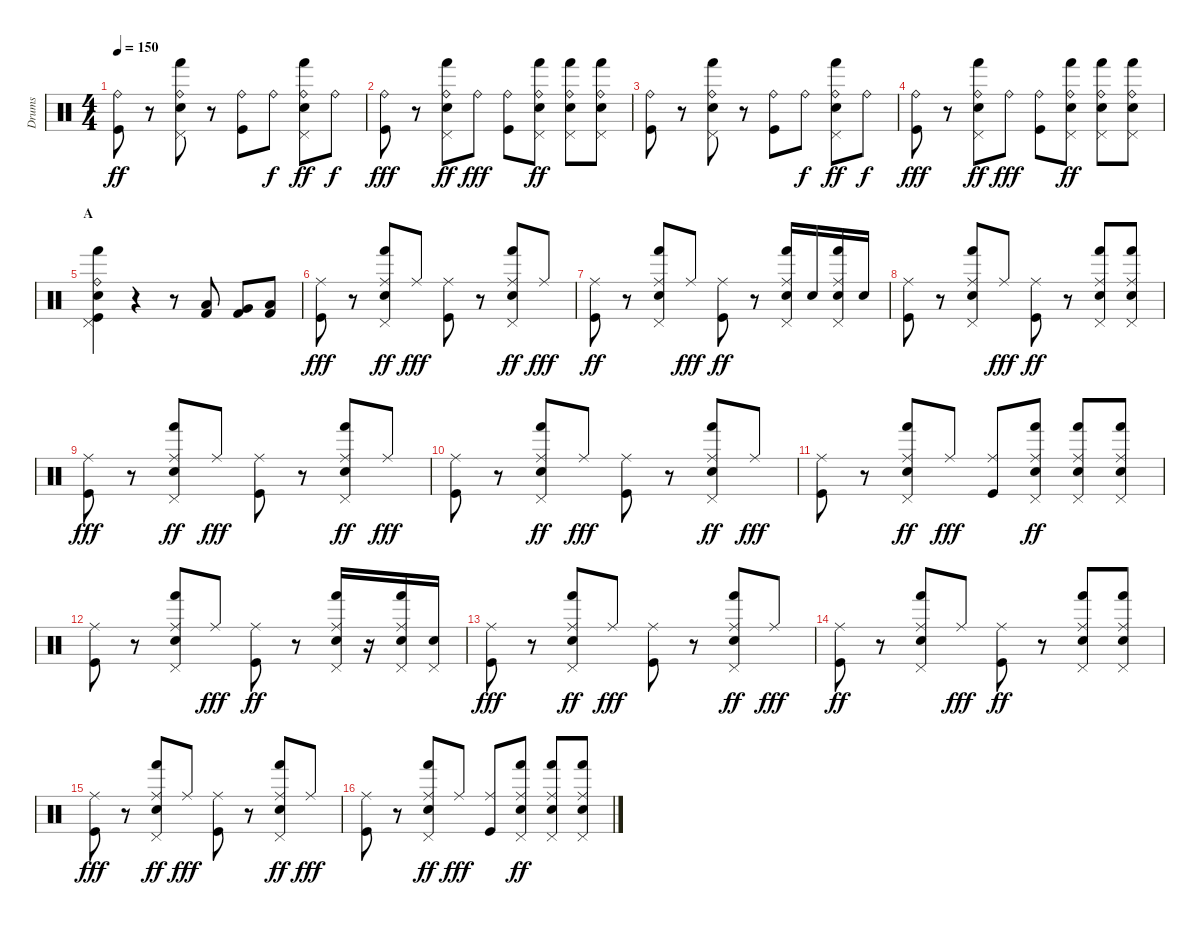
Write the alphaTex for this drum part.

\track ("Drums" "Drums") {instrument percussion}
\staff {score}
\articulation defaults
\ts (4 4)
\tempo 150
\clef neutral
\ks c
("Ride (bell)" "Kick (hit)").8{dy ff} r.8 ("Ride (bell)" "Pedal Hi-Hat (hit)" "Hand (hit)" "Electric Snare (hit)").8 r.8 ("Ride (bell)" "Kick (hit)").8 "Ride (bell)".8{dy f} ("Ride (bell)" "Pedal Hi-Hat (hit)" "Hand (hit)" "Electric Snare (hit)").8{dy ff} "Ride (bell)".8{dy f} |
("Ride (bell)" "Kick (hit)").8{dy fff} r.8 ("Ride (bell)" "Pedal Hi-Hat (hit)" "Hand (hit)" "Electric Snare (hit)").8{dy ff} "Ride (bell)".8{dy fff} ("Ride (bell)" "Kick (hit)").8 ("Ride (bell)" "Pedal Hi-Hat (hit)" "Hand (hit)" "Electric Snare (hit)").8{dy ff} ("Ride (bell)" "Pedal Hi-Hat (hit)" "Hand (hit)" "Electric Snare (hit)").8 ("Ride (bell)" "Pedal Hi-Hat (hit)" "Hand (hit)" "Electric Snare (hit)").8 |
("Ride (bell)" "Kick (hit)").8 r.8 ("Ride (bell)" "Pedal Hi-Hat (hit)" "Hand (hit)" "Electric Snare (hit)").8 r.8 ("Ride (bell)" "Kick (hit)").8 "Ride (bell)".8{dy f} ("Ride (bell)" "Pedal Hi-Hat (hit)" "Hand (hit)" "Electric Snare (hit)").8{dy ff} "Ride (bell)".8{dy f} |
("Ride (bell)" "Kick (hit)").8{dy fff} r.8 ("Ride (bell)" "Pedal Hi-Hat (hit)" "Hand (hit)" "Electric Snare (hit)").8{dy ff} "Ride (bell)".8{dy fff} ("Ride (bell)" "Kick (hit)").8 ("Ride (bell)" "Pedal Hi-Hat (hit)" "Hand (hit)" "Electric Snare (hit)").8{dy ff} ("Ride (bell)" "Pedal Hi-Hat (hit)" "Hand (hit)" "Electric Snare (hit)").8 ("Ride (bell)" "Pedal Hi-Hat (hit)" "Hand (hit)" "Electric Snare (hit)").8 |
\section ("" "A")
("Ride (bell)" "Pedal Hi-Hat (hit)" "Hand (hit)" "Electric Snare (hit)" "Kick (hit)").4 r.4 r.8 ("Low Floor Tom (hit)" "Kick (hit) 2").8 ("Very Low Tom (hit)" "Kick (hit) 2").8 ("Low Tom (hit)" "Kick (hit) 2").8 |
("Ride (middle)" "Kick (hit)").8{dy fff} r.8 ("Ride (middle)" "Pedal Hi-Hat (hit)" "Hand (hit)" "Electric Snare (hit)").8{dy ff} "Ride (middle)".8{dy fff} ("Ride (middle)" "Kick (hit)").8 r.8 ("Ride (middle)" "Pedal Hi-Hat (hit)" "Hand (hit)" "Electric Snare (hit)").8{dy ff} "Ride (middle)".8{dy fff} |
("Ride (middle)" "Kick (hit)").8{dy ff} r.8 ("Ride (middle)" "Pedal Hi-Hat (hit)" "Hand (hit)" "Electric Snare (hit)").8 "Ride (middle)".8{dy fff} ("Ride (middle)" "Kick (hit)").8{dy ff} r.8 ("Ride (middle)" "Pedal Hi-Hat (hit)" "Hand (hit)" "Electric Snare (hit)").16 "Electric Snare (hit)".16 ("Ride (middle)" "Pedal Hi-Hat (hit)" "Hand (hit)" "Electric Snare (hit)").16 "Electric Snare (hit)".16 |
("Ride (middle)" "Kick (hit)").8 r.8 ("Ride (middle)" "Pedal Hi-Hat (hit)" "Hand (hit)" "Electric Snare (hit)").8 "Ride (middle)".8{dy fff} ("Ride (middle)" "Kick (hit)").8{dy ff} r.8 ("Ride (middle)" "Pedal Hi-Hat (hit)" "Hand (hit)" "Electric Snare (hit)").8 ("Ride (middle)" "Pedal Hi-Hat (hit)" "Hand (hit)" "Electric Snare (hit)").8 |
("Ride (middle)" "Kick (hit)").8{dy fff} r.8 ("Ride (middle)" "Pedal Hi-Hat (hit)" "Hand (hit)" "Electric Snare (hit)").8{dy ff} "Ride (middle)".8{dy fff} ("Ride (middle)" "Kick (hit)").8 r.8 ("Ride (middle)" "Pedal Hi-Hat (hit)" "Hand (hit)" "Electric Snare (hit)").8{dy ff} "Ride (middle)".8{dy fff} |
("Ride (middle)" "Kick (hit)").8 r.8 ("Ride (middle)" "Pedal Hi-Hat (hit)" "Hand (hit)" "Electric Snare (hit)").8{dy ff} "Ride (middle)".8{dy fff} ("Ride (middle)" "Kick (hit)").8 r.8 ("Ride (middle)" "Pedal Hi-Hat (hit)" "Hand (hit)" "Electric Snare (hit)").8{dy ff} "Ride (middle)".8{dy fff} |
("Ride (middle)" "Kick (hit)").8 r.8 ("Ride (middle)" "Pedal Hi-Hat (hit)" "Hand (hit)" "Electric Snare (hit)").8{dy ff} "Ride (middle)".8{dy fff} ("Ride (middle)" "Kick (hit)").8 ("Ride (middle)" "Pedal Hi-Hat (hit)" "Hand (hit)" "Electric Snare (hit)").8{dy ff} ("Ride (middle)" "Pedal Hi-Hat (hit)" "Hand (hit)" "Electric Snare (hit)").8 ("Ride (middle)" "Pedal Hi-Hat (hit)" "Hand (hit)" "Electric Snare (hit)").8 |
("Ride (middle)" "Kick (hit)").8 r.8 ("Ride (middle)" "Pedal Hi-Hat (hit)" "Hand (hit)" "Electric Snare (hit)").8 "Ride (middle)".8{dy fff} ("Ride (middle)" "Kick (hit)").8{dy ff} r.8 ("Ride (middle)" "Pedal Hi-Hat (hit)" "Hand (hit)" "Electric Snare (hit)").16 r.16 ("Ride (middle)" "Pedal Hi-Hat (hit)" "Hand (hit)" "Electric Snare (hit)").16 ("Pedal Hi-Hat (hit)" "Electric Snare (hit)").16 |
("Ride (middle)" "Kick (hit)").8{dy fff} r.8 ("Ride (middle)" "Pedal Hi-Hat (hit)" "Hand (hit)" "Electric Snare (hit)").8{dy ff} "Ride (middle)".8{dy fff} ("Ride (middle)" "Kick (hit)").8 r.8 ("Ride (middle)" "Pedal Hi-Hat (hit)" "Hand (hit)" "Electric Snare (hit)").8{dy ff} "Ride (middle)".8{dy fff} |
("Ride (middle)" "Kick (hit)").8{dy ff} r.8 ("Ride (middle)" "Pedal Hi-Hat (hit)" "Hand (hit)" "Electric Snare (hit)").8 "Ride (middle)".8{dy fff} ("Ride (middle)" "Kick (hit)").8{dy ff} r.8 ("Ride (middle)" "Pedal Hi-Hat (hit)" "Hand (hit)" "Electric Snare (hit)").8 ("Ride (middle)" "Pedal Hi-Hat (hit)" "Hand (hit)" "Electric Snare (hit)").8 |
("Ride (middle)" "Kick (hit)").8{dy fff} r.8 ("Ride (middle)" "Pedal Hi-Hat (hit)" "Hand (hit)" "Electric Snare (hit)").8{dy ff} "Ride (middle)".8{dy fff} ("Ride (middle)" "Kick (hit)").8 r.8 ("Ride (middle)" "Pedal Hi-Hat (hit)" "Hand (hit)" "Electric Snare (hit)").8{dy ff} "Ride (middle)".8{dy fff} |
("Ride (middle)" "Kick (hit)").8 r.8 ("Ride (middle)" "Pedal Hi-Hat (hit)" "Hand (hit)" "Electric Snare (hit)").8{dy ff} "Ride (middle)".8{dy fff} ("Ride (middle)" "Kick (hit)").8 ("Ride (middle)" "Pedal Hi-Hat (hit)" "Hand (hit)" "Electric Snare (hit)").8{dy ff} ("Ride (middle)" "Pedal Hi-Hat (hit)" "Hand (hit)" "Electric Snare (hit)").8 ("Ride (middle)" "Pedal Hi-Hat (hit)" "Hand (hit)" "Electric Snare (hit)").8
